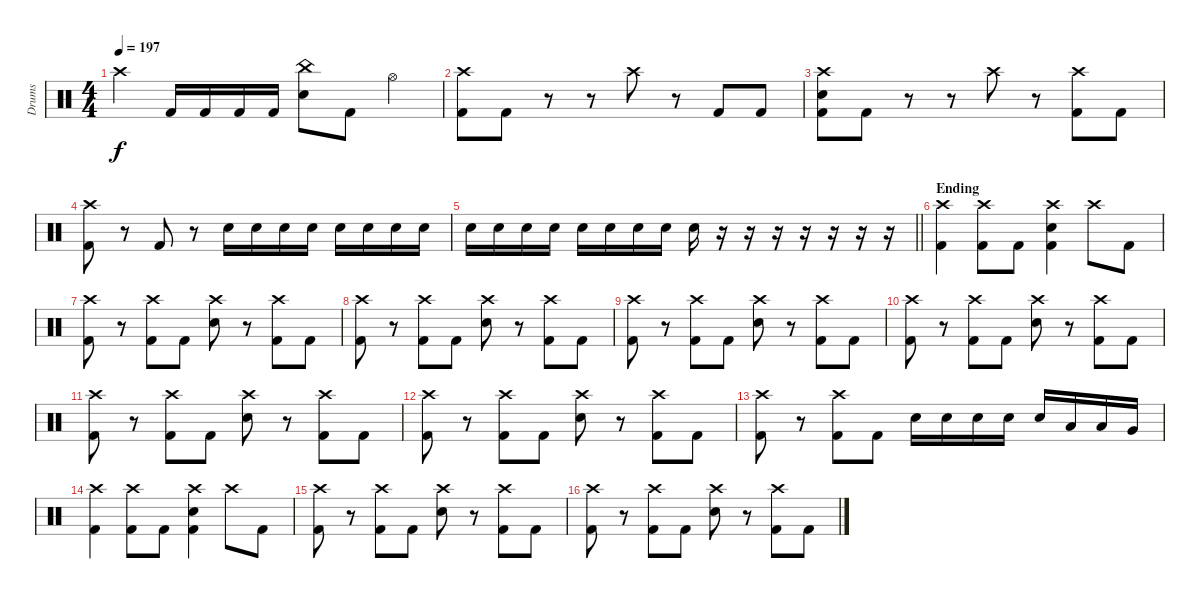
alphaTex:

\track ("Drums" "Drums") {instrument percussion}
\staff {score}
\articulation defaults
\ts (4 4)
\tempo 197
\clef neutral
\ks c "Crash high (hit)".4{dy f} "Kick (hit) 2".16 "Kick (hit) 2".16 "Kick (hit) 2".16 "Kick (hit) 2".16
("China (hit)" "Electric Snare (hit)").8 "Kick (hit) 2".8 "Hi-Hat (open)".4 |
("Crash high (hit)" "Kick (hit) 2").8 "Kick (hit) 2".8 r.8 r.8 "Crash high (hit)".8 r.8 "Kick (hit) 2".8 "Kick (hit) 2".8 |
("Crash high (hit)" "Electric Snare (hit)" "Kick (hit) 2").8 "Kick (hit) 2".8 r.8 r.8 "Crash high (hit)".8 r.8 ("Crash high (hit)" "Kick (hit) 2").8 "Kick (hit) 2".8 |
("Crash high (hit)" "Kick (hit) 2").8 r.8 "Kick (hit) 2".8 r.8 "Electric Snare (hit)".16 "Electric Snare (hit)".16 "Electric Snare (hit)".16 "Electric Snare (hit)".16 "Electric Snare (hit)".16 "Electric Snare (hit)".16 "Electric Snare (hit)".16 "Electric Snare (hit)".16 |
\barLineRight lightlight "Electric Snare (hit)".16 "Electric Snare (hit)".16 "Electric Snare (hit)".16 "Electric Snare (hit)".16 "Electric Snare (hit)".16 "Electric Snare (hit)".16 "Electric Snare (hit)".16 "Electric Snare (hit)".16 "Electric Snare (hit)".16
r.16 r.16 r.16 r.16 r.16 r.16 r.16 |
\section ("" "Ending")
("Crash high (hit)" "Kick (hit) 2").4{volume 16} ("Crash high (hit)" "Kick (hit) 2").8 "Kick (hit) 2".8 ("Crash high (hit)" "Electric Snare (hit)" "Kick (hit) 2").4 "Crash high (hit)".8 "Kick (hit) 2".8 |
("Crash high (hit)" "Kick (hit) 2").8 r.8 ("Crash high (hit)" "Kick (hit) 2").8 "Kick (hit) 2".8 ("Crash high (hit)" "Electric Snare (hit)").8 r.8 ("Crash high (hit)" "Kick (hit) 2").8 "Kick (hit) 2".8 |
("Crash high (hit)" "Kick (hit) 2").8 r.8 ("Crash high (hit)" "Kick (hit) 2").8 "Kick (hit) 2".8 ("Crash high (hit)" "Electric Snare (hit)").8 r.8 ("Crash high (hit)" "Kick (hit) 2").8 "Kick (hit) 2".8 |
("Crash high (hit)" "Kick (hit) 2").8 r.8 ("Crash high (hit)" "Kick (hit) 2").8 "Kick (hit) 2".8 ("Crash high (hit)" "Electric Snare (hit)").8 r.8 ("Crash high (hit)" "Kick (hit) 2").8 "Kick (hit) 2".8 |
("Crash high (hit)" "Kick (hit) 2").8 r.8 ("Crash high (hit)" "Kick (hit) 2").8 "Kick (hit) 2".8 ("Crash high (hit)" "Electric Snare (hit)").8 r.8 ("Crash high (hit)" "Kick (hit) 2").8 "Kick (hit) 2".8 |
("Crash high (hit)" "Kick (hit) 2").8 r.8 ("Crash high (hit)" "Kick (hit) 2").8 "Kick (hit) 2".8 ("Crash high (hit)" "Electric Snare (hit)").8 r.8 ("Crash high (hit)" "Kick (hit) 2").8 "Kick (hit) 2".8 |
("Crash high (hit)" "Kick (hit) 2").8 r.8 ("Crash high (hit)" "Kick (hit) 2").8 "Kick (hit) 2".8 ("Crash high (hit)" "Electric Snare (hit)").8 r.8 ("Crash high (hit)" "Kick (hit) 2").8 "Kick (hit) 2".8 |
("Crash high (hit)" "Kick (hit) 2").8 r.8 ("Crash high (hit)" "Kick (hit) 2").8 "Kick (hit) 2".8 "Electric Snare (hit)".16 "Electric Snare (hit)".16 "Electric Snare (hit)".16 "Electric Snare (hit)".16 "Electric Snare (hit)".16 "Low Tom (hit)".16 "Low Tom (hit)".16 "Very Low Tom (hit)".16 |
("Crash high (hit)" "Kick (hit) 2").4{volume 16} ("Crash high (hit)" "Kick (hit) 2").8 "Kick (hit) 2".8 ("Crash high (hit)" "Electric Snare (hit)" "Kick (hit) 2").4 "Crash high (hit)".8 "Kick (hit) 2".8 |
("Crash high (hit)" "Kick (hit) 2").8 r.8 ("Crash high (hit)" "Kick (hit) 2").8 "Kick (hit) 2".8 ("Crash high (hit)" "Electric Snare (hit)").8 r.8 ("Crash high (hit)" "Kick (hit) 2").8 "Kick (hit) 2".8 |
("Crash high (hit)" "Kick (hit) 2").8 r.8 ("Crash high (hit)" "Kick (hit) 2").8 "Kick (hit) 2".8 ("Crash high (hit)" "Electric Snare (hit)").8 r.8 ("Crash high (hit)" "Kick (hit) 2").8 "Kick (hit) 2".8
